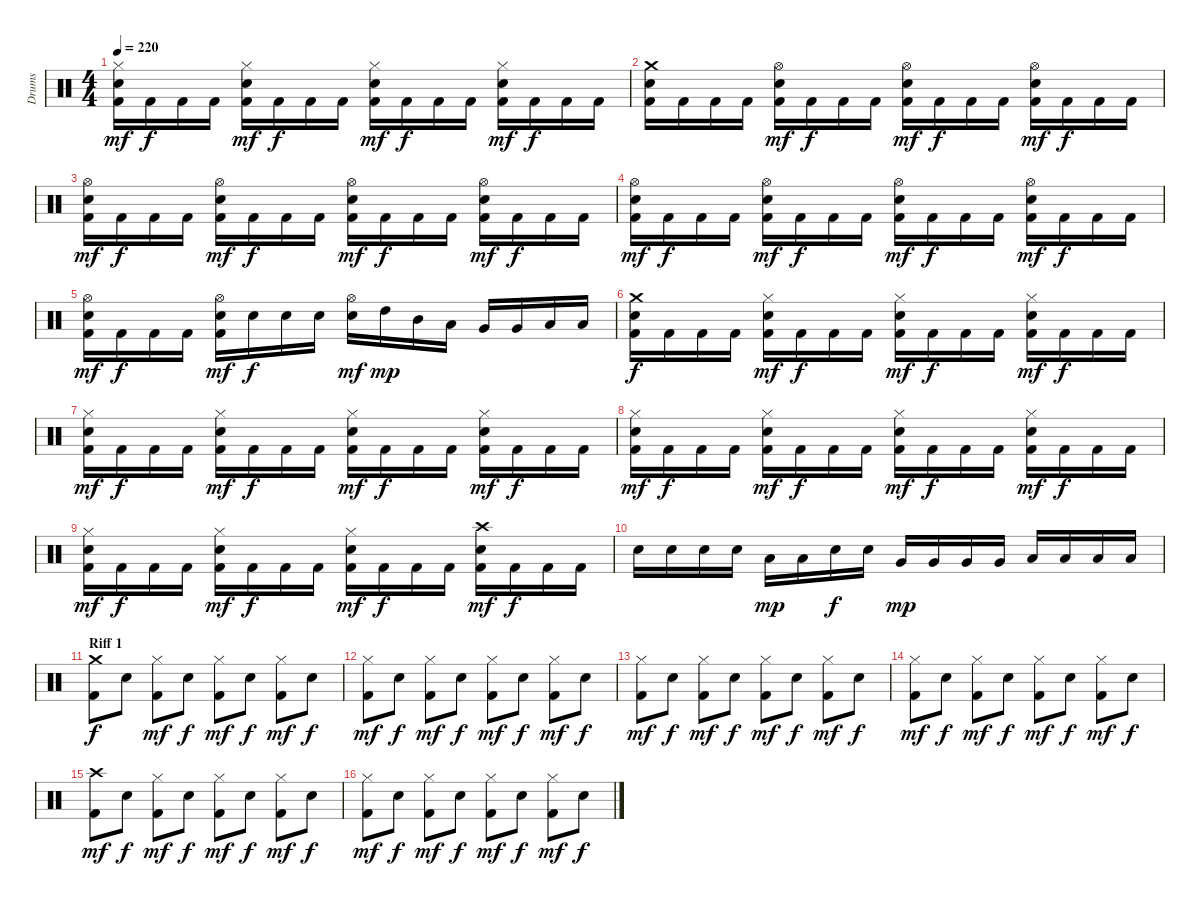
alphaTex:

\track ("Drums" "Drums") {instrument percussion}
\staff {score}
\articulation defaults
\ts (4 4)
\tempo 220
\clef neutral
\ks c
("Hi-Hat (closed)" "Electric Snare (hit)" "Kick (hit) 2").16{dy mf} "Kick (hit) 2".16{dy f} "Kick (hit) 2".16 "Kick (hit) 2".16 ("Hi-Hat (closed)" "Electric Snare (hit)" "Kick (hit) 2").16{dy mf} "Kick (hit) 2".16{dy f} "Kick (hit) 2".16 "Kick (hit) 2".16 ("Hi-Hat (closed)" "Electric Snare (hit)" "Kick (hit) 2").16{dy mf} "Kick (hit) 2".16{dy f} "Kick (hit) 2".16 "Kick (hit) 2".16 ("Hi-Hat (closed)" "Electric Snare (hit)" "Kick (hit) 2").16{dy mf} "Kick (hit) 2".16{dy f} "Kick (hit) 2".16 "Kick (hit) 2".16 |
("Crash medium (hit)" "Electric Snare (hit)" "Kick (hit) 2").16 "Kick (hit) 2".16 "Kick (hit) 2".16 "Kick (hit) 2".16 ("Hi-Hat (open)" "Electric Snare (hit)" "Kick (hit) 2").16{dy mf} "Kick (hit) 2".16{dy f} "Kick (hit) 2".16 "Kick (hit) 2".16 ("Hi-Hat (open)" "Electric Snare (hit)" "Kick (hit) 2").16{dy mf} "Kick (hit) 2".16{dy f} "Kick (hit) 2".16 "Kick (hit) 2".16 ("Hi-Hat (open)" "Electric Snare (hit)" "Kick (hit) 2").16{dy mf} "Kick (hit) 2".16{dy f} "Kick (hit) 2".16 "Kick (hit) 2".16 |
("Hi-Hat (open)" "Electric Snare (hit)" "Kick (hit) 2").16{dy mf} "Kick (hit) 2".16{dy f} "Kick (hit) 2".16 "Kick (hit) 2".16 ("Hi-Hat (open)" "Electric Snare (hit)" "Kick (hit) 2").16{dy mf} "Kick (hit) 2".16{dy f} "Kick (hit) 2".16 "Kick (hit) 2".16 ("Hi-Hat (open)" "Electric Snare (hit)" "Kick (hit) 2").16{dy mf} "Kick (hit) 2".16{dy f} "Kick (hit) 2".16 "Kick (hit) 2".16 ("Hi-Hat (open)" "Electric Snare (hit)" "Kick (hit) 2").16{dy mf} "Kick (hit) 2".16{dy f} "Kick (hit) 2".16 "Kick (hit) 2".16 |
("Hi-Hat (open)" "Electric Snare (hit)" "Kick (hit) 2").16{dy mf} "Kick (hit) 2".16{dy f} "Kick (hit) 2".16 "Kick (hit) 2".16 ("Hi-Hat (open)" "Electric Snare (hit)" "Kick (hit) 2").16{dy mf} "Kick (hit) 2".16{dy f} "Kick (hit) 2".16 "Kick (hit) 2".16 ("Hi-Hat (open)" "Electric Snare (hit)" "Kick (hit) 2").16{dy mf} "Kick (hit) 2".16{dy f} "Kick (hit) 2".16 "Kick (hit) 2".16 ("Hi-Hat (open)" "Electric Snare (hit)" "Kick (hit) 2").16{dy mf} "Kick (hit) 2".16{dy f} "Kick (hit) 2".16 "Kick (hit) 2".16 |
("Hi-Hat (open)" "Electric Snare (hit)" "Kick (hit) 2").16{dy mf} "Kick (hit) 2".16{dy f} "Kick (hit) 2".16 "Kick (hit) 2".16 ("Hi-Hat (open)" "Electric Snare (hit)" "Kick (hit) 2").16{dy mf} "Electric Snare (hit)".16{dy f} "Electric Snare (hit)".16 "Electric Snare (hit)".16 ("Hi-Hat (open)" "Electric Snare (hit)").16{dy mf} "High Tom (hit)".16{dy mp} "Mid Tom (hit)".16 "Low Tom (hit)".16 "Very Low Tom (hit)".16 "Very Low Tom (hit)".16 "Low Floor Tom (hit)".16 "Low Floor Tom (hit)".16 |
("Crash medium (hit)" "Electric Snare (hit)" "Kick (hit) 2").16{dy f} "Kick (hit) 2".16 "Kick (hit) 2".16 "Kick (hit) 2".16 ("Hi-Hat (closed)" "Electric Snare (hit)" "Kick (hit) 2").16{dy mf} "Kick (hit) 2".16{dy f} "Kick (hit) 2".16 "Kick (hit) 2".16 ("Hi-Hat (closed)" "Electric Snare (hit)" "Kick (hit) 2").16{dy mf} "Kick (hit) 2".16{dy f} "Kick (hit) 2".16 "Kick (hit) 2".16 ("Hi-Hat (closed)" "Electric Snare (hit)" "Kick (hit) 2").16{dy mf} "Kick (hit) 2".16{dy f} "Kick (hit) 2".16 "Kick (hit) 2".16 |
("Hi-Hat (closed)" "Electric Snare (hit)" "Kick (hit) 2").16{dy mf} "Kick (hit) 2".16{dy f} "Kick (hit) 2".16 "Kick (hit) 2".16 ("Hi-Hat (closed)" "Electric Snare (hit)" "Kick (hit) 2").16{dy mf} "Kick (hit) 2".16{dy f} "Kick (hit) 2".16 "Kick (hit) 2".16 ("Hi-Hat (closed)" "Electric Snare (hit)" "Kick (hit) 2").16{dy mf} "Kick (hit) 2".16{dy f} "Kick (hit) 2".16 "Kick (hit) 2".16 ("Hi-Hat (closed)" "Electric Snare (hit)" "Kick (hit) 2").16{dy mf} "Kick (hit) 2".16{dy f} "Kick (hit) 2".16 "Kick (hit) 2".16 |
("Hi-Hat (closed)" "Electric Snare (hit)" "Kick (hit) 2").16{dy mf} "Kick (hit) 2".16{dy f} "Kick (hit) 2".16 "Kick (hit) 2".16 ("Hi-Hat (closed)" "Electric Snare (hit)" "Kick (hit) 2").16{dy mf} "Kick (hit) 2".16{dy f} "Kick (hit) 2".16 "Kick (hit) 2".16 ("Hi-Hat (closed)" "Electric Snare (hit)" "Kick (hit) 2").16{dy mf} "Kick (hit) 2".16{dy f} "Kick (hit) 2".16 "Kick (hit) 2".16 ("Hi-Hat (closed)" "Electric Snare (hit)" "Kick (hit) 2").16{dy mf} "Kick (hit) 2".16{dy f} "Kick (hit) 2".16 "Kick (hit) 2".16 |
("Hi-Hat (closed)" "Electric Snare (hit)" "Kick (hit) 2").16{dy mf} "Kick (hit) 2".16{dy f} "Kick (hit) 2".16 "Kick (hit) 2".16 ("Hi-Hat (closed)" "Electric Snare (hit)" "Kick (hit) 2").16{dy mf} "Kick (hit) 2".16{dy f} "Kick (hit) 2".16 "Kick (hit) 2".16 ("Hi-Hat (closed)" "Electric Snare (hit)" "Kick (hit) 2").16{dy mf} "Kick (hit) 2".16{dy f} "Kick (hit) 2".16 "Kick (hit) 2".16 ("Crash high (hit)" "Electric Snare (hit)" "Kick (hit) 2").16{dy mf} "Kick (hit) 2".16{dy f} "Kick (hit) 2".16 "Kick (hit) 2".16 |
"Electric Snare (hit)".16 "Electric Snare (hit)".16 "Electric Snare (hit)".16 "Electric Snare (hit)".16 "Low Tom (hit)".16{dy mp} "Low Tom (hit)".16 "Electric Snare (hit)".16{dy f} "Electric Snare (hit)".16 "Very Low Tom (hit)".16{dy mp} "Very Low Tom (hit)".16 "Very Low Tom (hit)".16 "Very Low Tom (hit)".16 "Low Floor Tom (hit)".16 "Low Floor Tom (hit)".16 "Low Floor Tom (hit)".16 "Low Floor Tom (hit)".16 |
\section ("" "Riff 1")
("Crash medium (hit)" "Kick (hit) 2").8{dy f} "Electric Snare (hit)".8 ("Hi-Hat (closed)" "Kick (hit) 2").8{dy mf} "Electric Snare (hit)".8{dy f} ("Hi-Hat (closed)" "Kick (hit) 2").8{dy mf} "Electric Snare (hit)".8{dy f} ("Hi-Hat (closed)" "Kick (hit) 2").8{dy mf} "Electric Snare (hit)".8{dy f} |
("Hi-Hat (closed)" "Kick (hit) 2").8{dy mf} "Electric Snare (hit)".8{dy f} ("Hi-Hat (closed)" "Kick (hit) 2").8{dy mf} "Electric Snare (hit)".8{dy f} ("Hi-Hat (closed)" "Kick (hit) 2").8{dy mf} "Electric Snare (hit)".8{dy f} ("Hi-Hat (closed)" "Kick (hit) 2").8{dy mf} "Electric Snare (hit)".8{dy f} |
("Hi-Hat (closed)" "Kick (hit) 2").8{dy mf} "Electric Snare (hit)".8{dy f} ("Hi-Hat (closed)" "Kick (hit) 2").8{dy mf} "Electric Snare (hit)".8{dy f} ("Hi-Hat (closed)" "Kick (hit) 2").8{dy mf} "Electric Snare (hit)".8{dy f} ("Hi-Hat (closed)" "Kick (hit) 2").8{dy mf} "Electric Snare (hit)".8{dy f} |
("Hi-Hat (closed)" "Kick (hit) 2").8{dy mf} "Electric Snare (hit)".8{dy f} ("Hi-Hat (closed)" "Kick (hit) 2").8{dy mf} "Electric Snare (hit)".8{dy f} ("Hi-Hat (closed)" "Kick (hit) 2").8{dy mf} "Electric Snare (hit)".8{dy f} ("Hi-Hat (closed)" "Kick (hit) 2").8{dy mf} "Electric Snare (hit)".8{dy f} |
("Crash high (hit)" "Kick (hit) 2").8{dy mf} "Electric Snare (hit)".8{dy f} ("Hi-Hat (closed)" "Kick (hit) 2").8{dy mf} "Electric Snare (hit)".8{dy f} ("Hi-Hat (closed)" "Kick (hit) 2").8{dy mf} "Electric Snare (hit)".8{dy f} ("Hi-Hat (closed)" "Kick (hit) 2").8{dy mf} "Electric Snare (hit)".8{dy f} |
("Hi-Hat (closed)" "Kick (hit) 2").8{dy mf} "Electric Snare (hit)".8{dy f} ("Hi-Hat (closed)" "Kick (hit) 2").8{dy mf} "Electric Snare (hit)".8{dy f} ("Hi-Hat (closed)" "Kick (hit) 2").8{dy mf} "Electric Snare (hit)".8{dy f} ("Hi-Hat (closed)" "Kick (hit) 2").8{dy mf} "Electric Snare (hit)".8{dy f}
